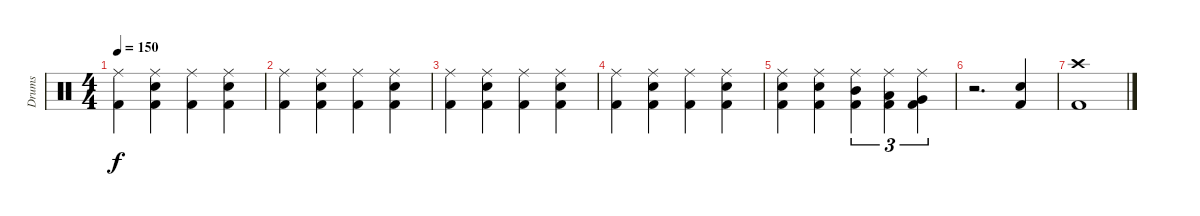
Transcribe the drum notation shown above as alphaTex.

\track ("Drums" "Drums") {instrument percussion}
\staff {score}
\articulation defaults
\ts (4 4)
\tempo 150
\clef neutral
\ks c
("Ride (middle)" "Kick (hit) 2").4{dy f} ("Ride (middle)" "Electric Snare (hit)" "Kick (hit) 2").4 ("Ride (middle)" "Kick (hit) 2").4 ("Ride (middle)" "Electric Snare (hit)" "Kick (hit) 2").4 |
("Ride (middle)" "Kick (hit) 2").4 ("Ride (middle)" "Electric Snare (hit)" "Kick (hit) 2").4 ("Ride (middle)" "Kick (hit) 2").4 ("Ride (middle)" "Electric Snare (hit)" "Kick (hit) 2").4 |
("Ride (middle)" "Kick (hit) 2").4 ("Ride (middle)" "Electric Snare (hit)" "Kick (hit) 2").4 ("Ride (middle)" "Kick (hit) 2").4 ("Ride (middle)" "Electric Snare (hit)" "Kick (hit) 2").4 |
("Ride (middle)" "Kick (hit) 2").4 ("Ride (middle)" "Electric Snare (hit)" "Kick (hit) 2").4 ("Ride (middle)" "Kick (hit) 2").4 ("Ride (middle)" "Electric Snare (hit)" "Kick (hit) 2").4 |
("Ride (middle)" "Electric Snare (hit)" "Kick (hit) 2").4 ("Ride (middle)" "Snare (hit) 2" "Kick (hit) 2").4 ("Ride (middle)" "Mid Tom (hit)" "Kick (hit) 2").4{tu (3 2)} ("Ride (middle)" "Low Tom (hit)" "Kick (hit) 2").4{tu (3 2)} ("Ride (middle)" "Very Low Tom (hit)" "Kick (hit) 2").4{tu (3 2)} |
r.2{d} ("Electric Snare (hit)" "Kick (hit) 2").4 |
("Crash high (hit)" "Kick (hit) 2").1
